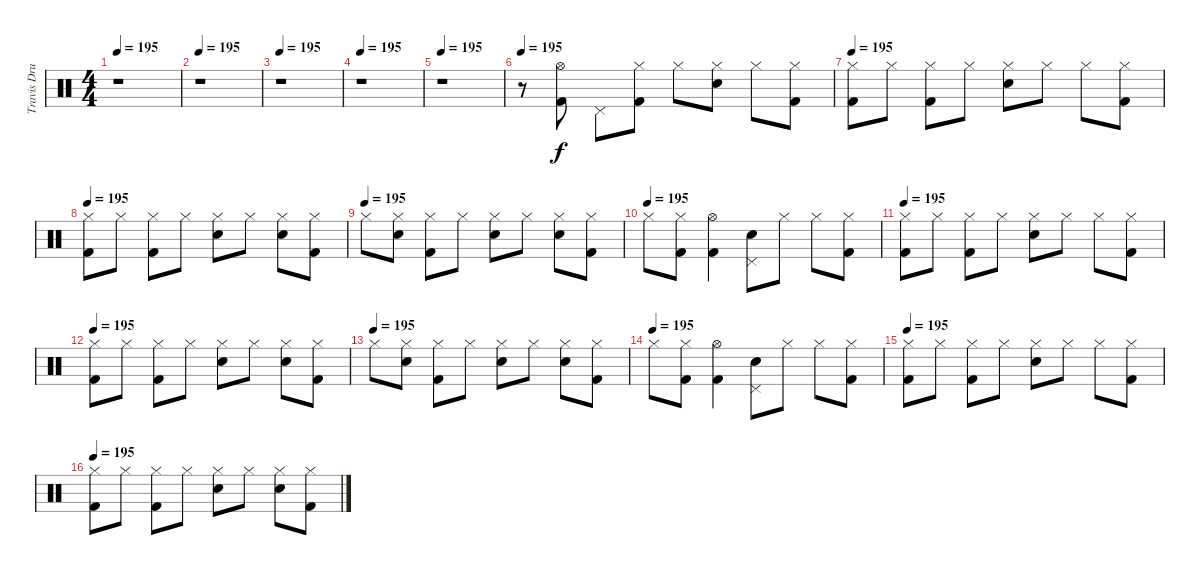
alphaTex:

\track ("Travis Drums" "Travis Dru") {instrument percussion}
\staff {score}
\articulation defaults
\ts (4 4)
\tempo 195
\clef neutral
\ks c
r.1{dy f} |
\tempo 195
r.1 |
\tempo 195
r.1 |
\tempo 195
r.1 |
\tempo 195
r.1 |
\tempo 195
r.8 ("Hi-Hat (open)" "Kick (hit) 2").8 "Pedal Hi-Hat (hit)".8 ("Hi-Hat (closed)" "Kick (hit) 2").8 "Hi-Hat (closed)".8 ("Hi-Hat (closed)" "Electric Snare (hit)").8 "Hi-Hat (closed)".8 ("Hi-Hat (closed)" "Kick (hit) 2").8 |
\tempo 195
("Hi-Hat (closed)" "Kick (hit) 2").8 "Hi-Hat (closed)".8 ("Hi-Hat (closed)" "Kick (hit) 2").8 "Hi-Hat (closed)".8 ("Hi-Hat (closed)" "Electric Snare (hit)").8 "Hi-Hat (closed)".8 "Hi-Hat (closed)".8 ("Hi-Hat (closed)" "Kick (hit) 2").8 |
\tempo 195
("Hi-Hat (closed)" "Kick (hit) 2").8 "Hi-Hat (closed)".8 ("Hi-Hat (closed)" "Kick (hit) 2").8 "Hi-Hat (closed)".8 ("Hi-Hat (closed)" "Electric Snare (hit)").8 "Hi-Hat (closed)".8 ("Hi-Hat (closed)" "Electric Snare (hit)").8 ("Hi-Hat (closed)" "Kick (hit) 2").8 |
\tempo (195)
"Hi-Hat (closed)".8 ("Hi-Hat (closed)" "Electric Snare (hit)").8 ("Hi-Hat (closed)" "Kick (hit) 2").8 "Hi-Hat (closed)".8 ("Hi-Hat (closed)" "Electric Snare (hit)").8 "Hi-Hat (closed)".8 ("Hi-Hat (closed)" "Electric Snare (hit)").8 ("Hi-Hat (closed)" "Kick (hit) 2").8 |
\tempo (195)
"Hi-Hat (closed)".8 ("Hi-Hat (closed)" "Kick (hit) 2").8 ("Hi-Hat (open)" "Kick (hit) 2").4 ("Pedal Hi-Hat (hit)" "Electric Snare (hit)").8 "Hi-Hat (closed)".8 "Hi-Hat (closed)".8 ("Hi-Hat (closed)" "Kick (hit) 2").8 |
\tempo 195
("Hi-Hat (closed)" "Kick (hit) 2").8 "Hi-Hat (closed)".8 ("Hi-Hat (closed)" "Kick (hit) 2").8 "Hi-Hat (closed)".8 ("Hi-Hat (closed)" "Electric Snare (hit)").8 "Hi-Hat (closed)".8 "Hi-Hat (closed)".8 ("Hi-Hat (closed)" "Kick (hit) 2").8 |
\tempo 195
("Hi-Hat (closed)" "Kick (hit) 2").8 "Hi-Hat (closed)".8 ("Hi-Hat (closed)" "Kick (hit) 2").8 "Hi-Hat (closed)".8 ("Hi-Hat (closed)" "Electric Snare (hit)").8 "Hi-Hat (closed)".8 ("Hi-Hat (closed)" "Electric Snare (hit)").8 ("Hi-Hat (closed)" "Kick (hit) 2").8 |
\tempo (195)
"Hi-Hat (closed)".8 ("Hi-Hat (closed)" "Electric Snare (hit)").8 ("Hi-Hat (closed)" "Kick (hit) 2").8 "Hi-Hat (closed)".8 ("Hi-Hat (closed)" "Electric Snare (hit)").8 "Hi-Hat (closed)".8 ("Hi-Hat (closed)" "Electric Snare (hit)").8 ("Hi-Hat (closed)" "Kick (hit) 2").8 |
\tempo (195)
"Hi-Hat (closed)".8 ("Hi-Hat (closed)" "Kick (hit) 2").8 ("Hi-Hat (open)" "Kick (hit) 2").4 ("Pedal Hi-Hat (hit)" "Electric Snare (hit)").8 "Hi-Hat (closed)".8 "Hi-Hat (closed)".8 ("Hi-Hat (closed)" "Kick (hit) 2").8 |
\tempo 195
("Hi-Hat (closed)" "Kick (hit) 2").8 "Hi-Hat (closed)".8 ("Hi-Hat (closed)" "Kick (hit) 2").8 "Hi-Hat (closed)".8 ("Hi-Hat (closed)" "Electric Snare (hit)").8 "Hi-Hat (closed)".8 "Hi-Hat (closed)".8 ("Hi-Hat (closed)" "Kick (hit) 2").8 |
\tempo 195
("Hi-Hat (closed)" "Kick (hit) 2").8 "Hi-Hat (closed)".8 ("Hi-Hat (closed)" "Kick (hit) 2").8 "Hi-Hat (closed)".8 ("Hi-Hat (closed)" "Electric Snare (hit)").8 "Hi-Hat (closed)".8 ("Hi-Hat (closed)" "Electric Snare (hit)").8 ("Hi-Hat (closed)" "Kick (hit) 2").8
